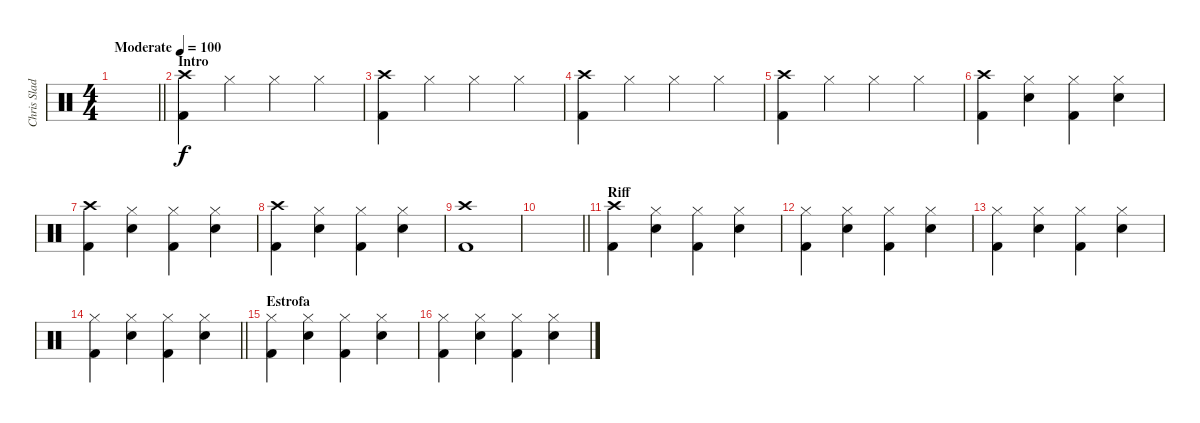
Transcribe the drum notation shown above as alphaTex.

\track ("Chris Slade" "Chris Slad") {instrument percussion}
\staff {score}
\articulation defaults
\ts (4 4)
\tempo (100 "Moderate")
\clef neutral
\barLineRight lightlight
\ks c
|
\section ("" "Intro")
("Kick (hit) 2" "Crash high (hit)").4 "Hi-Hat (closed)".4 "Hi-Hat (closed)".4 "Hi-Hat (closed)".4 |
("Kick (hit) 2" "Crash high (hit)").4 "Hi-Hat (closed)".4 "Hi-Hat (closed)".4 "Hi-Hat (closed)".4 |
("Kick (hit) 2" "Crash high (hit)").4 "Hi-Hat (closed)".4 "Hi-Hat (closed)".4 "Hi-Hat (closed)".4 |
("Kick (hit) 2" "Crash high (hit)").4 "Hi-Hat (closed)".4 "Hi-Hat (closed)".4 "Hi-Hat (closed)".4 |
("Kick (hit) 2" "Crash high (hit)").4 ("Snare (hit) 2" "Hi-Hat (closed)").4 ("Kick (hit) 2" "Hi-Hat (closed)").4 ("Snare (hit) 2" "Hi-Hat (closed)").4 |
("Kick (hit) 2" "Crash high (hit)").4 ("Snare (hit) 2" "Hi-Hat (closed)").4 ("Kick (hit) 2" "Hi-Hat (closed)").4 ("Snare (hit) 2" "Hi-Hat (closed)").4 |
("Kick (hit) 2" "Crash high (hit)").4 ("Snare (hit) 2" "Hi-Hat (closed)").4 ("Kick (hit) 2" "Hi-Hat (closed)").4 ("Snare (hit) 2" "Hi-Hat (closed)").4 |
("Kick (hit) 2" "Crash high (hit)").1 |
\barLineRight lightlight
|
\section ("" "Riff")
("Kick (hit) 2" "Crash high (hit)").4 ("Snare (hit) 2" "Hi-Hat (closed)").4 ("Kick (hit) 2" "Hi-Hat (closed)").4 ("Snare (hit) 2" "Hi-Hat (closed)").4 |
("Kick (hit) 2" "Hi-Hat (closed)").4 ("Snare (hit) 2" "Hi-Hat (closed)").4 ("Kick (hit) 2" "Hi-Hat (closed)").4 ("Snare (hit) 2" "Hi-Hat (closed)").4 |
("Kick (hit) 2" "Hi-Hat (closed)").4 ("Snare (hit) 2" "Hi-Hat (closed)").4 ("Kick (hit) 2" "Hi-Hat (closed)").4 ("Snare (hit) 2" "Hi-Hat (closed)").4 |
\barLineRight lightlight
("Kick (hit) 2" "Hi-Hat (closed)").4 ("Snare (hit) 2" "Hi-Hat (closed)").4 ("Kick (hit) 2" "Hi-Hat (closed)").4 ("Snare (hit) 2" "Hi-Hat (closed)").4 |
\section ("" "Estrofa")
("Kick (hit) 2" "Hi-Hat (closed)").4 ("Snare (hit) 2" "Hi-Hat (closed)").4 ("Kick (hit) 2" "Hi-Hat (closed)").4 ("Snare (hit) 2" "Hi-Hat (closed)").4 |
("Kick (hit) 2" "Hi-Hat (closed)").4 ("Snare (hit) 2" "Hi-Hat (closed)").4 ("Kick (hit) 2" "Hi-Hat (closed)").4 ("Snare (hit) 2" "Hi-Hat (closed)").4
